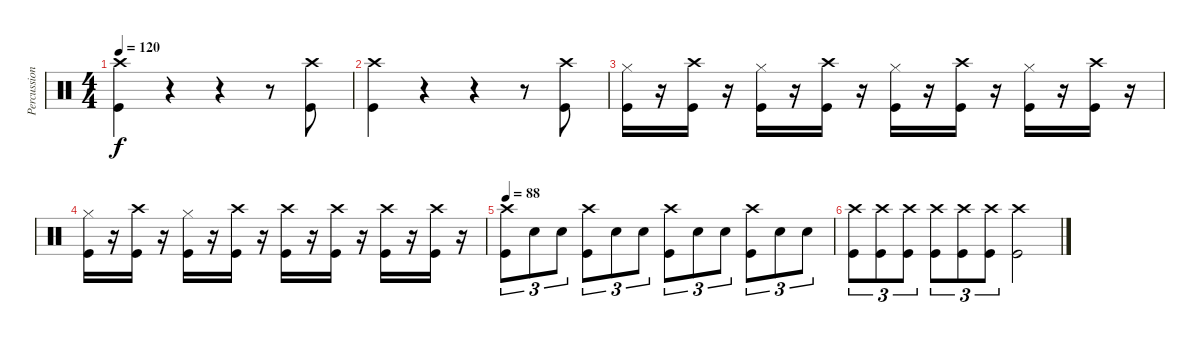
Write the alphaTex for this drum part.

\track ("Percussion" "Percussion") {instrument percussion}
\staff {score}
\articulation defaults
\ts (4 4)
\tempo 120
\clef neutral
\ks c
("Kick (hit)" "Crash high (hit)").4{dy f} r.4 r.4 r.8 ("Kick (hit)" "Crash high (hit)").8 |
("Kick (hit)" "Crash high (hit)").4 r.4 r.4 r.8 ("Kick (hit)" "Crash high (hit)").8 |
("Hi-Hat (closed)" "Kick (hit)").16 r.16 ("Crash high (hit)" "Kick (hit)").16 r.16 ("Hi-Hat (closed)" "Kick (hit)").16 r.16 ("Crash high (hit)" "Kick (hit)").16 r.16 ("Hi-Hat (closed)" "Kick (hit)").16 r.16 ("Crash high (hit)" "Kick (hit)").16 r.16 ("Hi-Hat (closed)" "Kick (hit)").16 r.16 ("Crash high (hit)" "Kick (hit)").16 r.16 |
("Hi-Hat (closed)" "Kick (hit)").16 r.16 ("Crash high (hit)" "Kick (hit)").16 r.16 ("Hi-Hat (closed)" "Kick (hit)").16 r.16 ("Crash high (hit)" "Kick (hit)").16 r.16 ("Crash high (hit)" "Kick (hit)").16 r.16 ("Crash high (hit)" "Kick (hit)").16 r.16 ("Crash high (hit)" "Kick (hit)").16 r.16 ("Crash high (hit)" "Kick (hit)").16 r.16 |
\tempo 88
("Kick (hit)" "Crash high (hit)").8{tu (3 2)} "Snare (hit) 2".8{tu (3 2)} "Snare (hit) 2".8{tu (3 2)} ("Kick (hit)" "Crash high (hit)").8{tu (3 2)} "Snare (hit) 2".8{tu (3 2)} "Snare (hit) 2".8{tu (3 2)} ("Kick (hit)" "Crash high (hit)").8{tu (3 2)} "Snare (hit) 2".8{tu (3 2)} "Snare (hit) 2".8{tu (3 2)} ("Kick (hit)" "Crash high (hit)").8{tu (3 2)} "Snare (hit) 2".8{tu (3 2)} "Snare (hit) 2".8{tu (3 2)} |
("Kick (hit)" "Crash high (hit)").8{tu (3 2)} ("Kick (hit)" "Crash high (hit)").8{tu (3 2)} ("Kick (hit)" "Crash high (hit)").8{tu (3 2)} ("Kick (hit)" "Crash high (hit)").8{tu (3 2)} ("Kick (hit)" "Crash high (hit)").8{tu (3 2)} ("Kick (hit)" "Crash high (hit)").8{tu (3 2)} ("Kick (hit)" "Crash high (hit)").2
